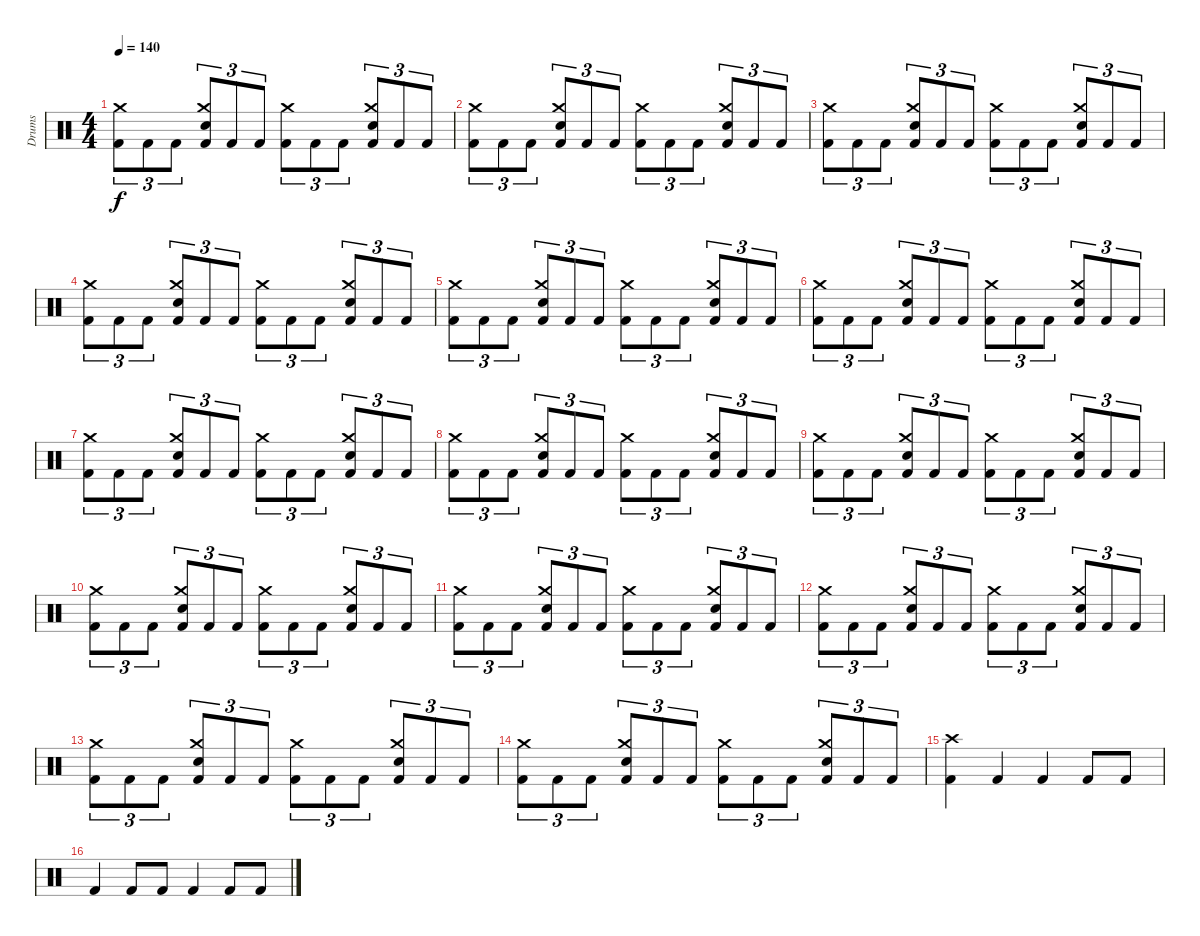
\track ("Drums" "Drums") {instrument percussion}
\staff {score}
\articulation defaults
\ts (4 4)
\tempo 140
\clef neutral
\ks c
("Kick (hit) 2" "Crash medium (hit)").8{tu (3 2) dy f} "Kick (hit) 2".8{tu (3 2)} "Kick (hit) 2".8{tu (3 2)} ("Electric Snare (hit)" "Kick (hit) 2" "Crash medium (hit)").8{tu (3 2)} "Kick (hit) 2".8{tu (3 2)} "Kick (hit) 2".8{tu (3 2)} ("Kick (hit) 2" "Crash medium (hit)").8{tu (3 2)} "Kick (hit) 2".8{tu (3 2)} "Kick (hit) 2".8{tu (3 2)} ("Electric Snare (hit)" "Kick (hit) 2" "Crash medium (hit)").8{tu (3 2)} "Kick (hit) 2".8{tu (3 2)} "Kick (hit) 2".8{tu (3 2)} |
("Kick (hit) 2" "Crash medium (hit)").8{tu (3 2)} "Kick (hit) 2".8{tu (3 2)} "Kick (hit) 2".8{tu (3 2)} ("Electric Snare (hit)" "Kick (hit) 2" "Crash medium (hit)").8{tu (3 2)} "Kick (hit) 2".8{tu (3 2)} "Kick (hit) 2".8{tu (3 2)} ("Kick (hit) 2" "Crash medium (hit)").8{tu (3 2)} "Kick (hit) 2".8{tu (3 2)} "Kick (hit) 2".8{tu (3 2)} ("Electric Snare (hit)" "Kick (hit) 2" "Crash medium (hit)").8{tu (3 2)} "Kick (hit) 2".8{tu (3 2)} "Kick (hit) 2".8{tu (3 2)} |
("Kick (hit) 2" "Crash medium (hit)").8{tu (3 2)} "Kick (hit) 2".8{tu (3 2)} "Kick (hit) 2".8{tu (3 2)} ("Electric Snare (hit)" "Kick (hit) 2" "Crash medium (hit)").8{tu (3 2)} "Kick (hit) 2".8{tu (3 2)} "Kick (hit) 2".8{tu (3 2)} ("Kick (hit) 2" "Crash medium (hit)").8{tu (3 2)} "Kick (hit) 2".8{tu (3 2)} "Kick (hit) 2".8{tu (3 2)} ("Electric Snare (hit)" "Kick (hit) 2" "Crash medium (hit)").8{tu (3 2)} "Kick (hit) 2".8{tu (3 2)} "Kick (hit) 2".8{tu (3 2)} |
("Kick (hit) 2" "Crash medium (hit)").8{tu (3 2)} "Kick (hit) 2".8{tu (3 2)} "Kick (hit) 2".8{tu (3 2)} ("Electric Snare (hit)" "Kick (hit) 2" "Crash medium (hit)").8{tu (3 2)} "Kick (hit) 2".8{tu (3 2)} "Kick (hit) 2".8{tu (3 2)} ("Kick (hit) 2" "Crash medium (hit)").8{tu (3 2)} "Kick (hit) 2".8{tu (3 2)} "Kick (hit) 2".8{tu (3 2)} ("Electric Snare (hit)" "Kick (hit) 2" "Crash medium (hit)").8{tu (3 2)} "Kick (hit) 2".8{tu (3 2)} "Kick (hit) 2".8{tu (3 2)} |
("Kick (hit) 2" "Crash medium (hit)").8{tu (3 2)} "Kick (hit) 2".8{tu (3 2)} "Kick (hit) 2".8{tu (3 2)} ("Electric Snare (hit)" "Kick (hit) 2" "Crash medium (hit)").8{tu (3 2)} "Kick (hit) 2".8{tu (3 2)} "Kick (hit) 2".8{tu (3 2)} ("Kick (hit) 2" "Crash medium (hit)").8{tu (3 2)} "Kick (hit) 2".8{tu (3 2)} "Kick (hit) 2".8{tu (3 2)} ("Electric Snare (hit)" "Kick (hit) 2" "Crash medium (hit)").8{tu (3 2)} "Kick (hit) 2".8{tu (3 2)} "Kick (hit) 2".8{tu (3 2)} |
("Kick (hit) 2" "Crash medium (hit)").8{tu (3 2)} "Kick (hit) 2".8{tu (3 2)} "Kick (hit) 2".8{tu (3 2)} ("Electric Snare (hit)" "Kick (hit) 2" "Crash medium (hit)").8{tu (3 2)} "Kick (hit) 2".8{tu (3 2)} "Kick (hit) 2".8{tu (3 2)} ("Kick (hit) 2" "Crash medium (hit)").8{tu (3 2)} "Kick (hit) 2".8{tu (3 2)} "Kick (hit) 2".8{tu (3 2)} ("Electric Snare (hit)" "Kick (hit) 2" "Crash medium (hit)").8{tu (3 2)} "Kick (hit) 2".8{tu (3 2)} "Kick (hit) 2".8{tu (3 2)} |
("Kick (hit) 2" "Crash medium (hit)").8{tu (3 2)} "Kick (hit) 2".8{tu (3 2)} "Kick (hit) 2".8{tu (3 2)} ("Electric Snare (hit)" "Kick (hit) 2" "Crash medium (hit)").8{tu (3 2)} "Kick (hit) 2".8{tu (3 2)} "Kick (hit) 2".8{tu (3 2)} ("Kick (hit) 2" "Crash medium (hit)").8{tu (3 2)} "Kick (hit) 2".8{tu (3 2)} "Kick (hit) 2".8{tu (3 2)} ("Electric Snare (hit)" "Kick (hit) 2" "Crash medium (hit)").8{tu (3 2)} "Kick (hit) 2".8{tu (3 2)} "Kick (hit) 2".8{tu (3 2)} |
("Kick (hit) 2" "Crash medium (hit)").8{tu (3 2)} "Kick (hit) 2".8{tu (3 2)} "Kick (hit) 2".8{tu (3 2)} ("Electric Snare (hit)" "Kick (hit) 2" "Crash medium (hit)").8{tu (3 2)} "Kick (hit) 2".8{tu (3 2)} "Kick (hit) 2".8{tu (3 2)} ("Kick (hit) 2" "Crash medium (hit)").8{tu (3 2)} "Kick (hit) 2".8{tu (3 2)} "Kick (hit) 2".8{tu (3 2)} ("Electric Snare (hit)" "Kick (hit) 2" "Crash medium (hit)").8{tu (3 2)} "Kick (hit) 2".8{tu (3 2)} "Kick (hit) 2".8{tu (3 2)} |
("Kick (hit) 2" "Crash medium (hit)").8{tu (3 2)} "Kick (hit) 2".8{tu (3 2)} "Kick (hit) 2".8{tu (3 2)} ("Electric Snare (hit)" "Kick (hit) 2" "Crash medium (hit)").8{tu (3 2)} "Kick (hit) 2".8{tu (3 2)} "Kick (hit) 2".8{tu (3 2)} ("Kick (hit) 2" "Crash medium (hit)").8{tu (3 2)} "Kick (hit) 2".8{tu (3 2)} "Kick (hit) 2".8{tu (3 2)} ("Electric Snare (hit)" "Kick (hit) 2" "Crash medium (hit)").8{tu (3 2)} "Kick (hit) 2".8{tu (3 2)} "Kick (hit) 2".8{tu (3 2)} |
("Kick (hit) 2" "Crash medium (hit)").8{tu (3 2)} "Kick (hit) 2".8{tu (3 2)} "Kick (hit) 2".8{tu (3 2)} ("Electric Snare (hit)" "Kick (hit) 2" "Crash medium (hit)").8{tu (3 2)} "Kick (hit) 2".8{tu (3 2)} "Kick (hit) 2".8{tu (3 2)} ("Kick (hit) 2" "Crash medium (hit)").8{tu (3 2)} "Kick (hit) 2".8{tu (3 2)} "Kick (hit) 2".8{tu (3 2)} ("Electric Snare (hit)" "Kick (hit) 2" "Crash medium (hit)").8{tu (3 2)} "Kick (hit) 2".8{tu (3 2)} "Kick (hit) 2".8{tu (3 2)} |
("Kick (hit) 2" "Crash medium (hit)").8{tu (3 2)} "Kick (hit) 2".8{tu (3 2)} "Kick (hit) 2".8{tu (3 2)} ("Electric Snare (hit)" "Kick (hit) 2" "Crash medium (hit)").8{tu (3 2)} "Kick (hit) 2".8{tu (3 2)} "Kick (hit) 2".8{tu (3 2)} ("Kick (hit) 2" "Crash medium (hit)").8{tu (3 2)} "Kick (hit) 2".8{tu (3 2)} "Kick (hit) 2".8{tu (3 2)} ("Electric Snare (hit)" "Kick (hit) 2" "Crash medium (hit)").8{tu (3 2)} "Kick (hit) 2".8{tu (3 2)} "Kick (hit) 2".8{tu (3 2)} |
("Kick (hit) 2" "Crash medium (hit)").8{tu (3 2)} "Kick (hit) 2".8{tu (3 2)} "Kick (hit) 2".8{tu (3 2)} ("Electric Snare (hit)" "Kick (hit) 2" "Crash medium (hit)").8{tu (3 2)} "Kick (hit) 2".8{tu (3 2)} "Kick (hit) 2".8{tu (3 2)} ("Kick (hit) 2" "Crash medium (hit)").8{tu (3 2)} "Kick (hit) 2".8{tu (3 2)} "Kick (hit) 2".8{tu (3 2)} ("Electric Snare (hit)" "Kick (hit) 2" "Crash medium (hit)").8{tu (3 2)} "Kick (hit) 2".8{tu (3 2)} "Kick (hit) 2".8{tu (3 2)} |
("Kick (hit) 2" "Crash medium (hit)").8{tu (3 2)} "Kick (hit) 2".8{tu (3 2)} "Kick (hit) 2".8{tu (3 2)} ("Electric Snare (hit)" "Kick (hit) 2" "Crash medium (hit)").8{tu (3 2)} "Kick (hit) 2".8{tu (3 2)} "Kick (hit) 2".8{tu (3 2)} ("Kick (hit) 2" "Crash medium (hit)").8{tu (3 2)} "Kick (hit) 2".8{tu (3 2)} "Kick (hit) 2".8{tu (3 2)} ("Electric Snare (hit)" "Kick (hit) 2" "Crash medium (hit)").8{tu (3 2)} "Kick (hit) 2".8{tu (3 2)} "Kick (hit) 2".8{tu (3 2)} |
("Kick (hit) 2" "Crash medium (hit)").8{tu (3 2)} "Kick (hit) 2".8{tu (3 2)} "Kick (hit) 2".8{tu (3 2)} ("Electric Snare (hit)" "Kick (hit) 2" "Crash medium (hit)").8{tu (3 2)} "Kick (hit) 2".8{tu (3 2)} "Kick (hit) 2".8{tu (3 2)} ("Kick (hit) 2" "Crash medium (hit)").8{tu (3 2)} "Kick (hit) 2".8{tu (3 2)} "Kick (hit) 2".8{tu (3 2)} ("Electric Snare (hit)" "Kick (hit) 2" "Crash medium (hit)").8{tu (3 2)} "Kick (hit) 2".8{tu (3 2)} "Kick (hit) 2".8{tu (3 2)} |
("Crash high (hit)" "Kick (hit) 2").4 "Kick (hit) 2".4 "Kick (hit) 2".4 "Kick (hit) 2".8 "Kick (hit) 2".8 |
"Kick (hit) 2".4 "Kick (hit) 2".8 "Kick (hit) 2".8 "Kick (hit) 2".4 "Kick (hit) 2".8 "Kick (hit) 2".8
